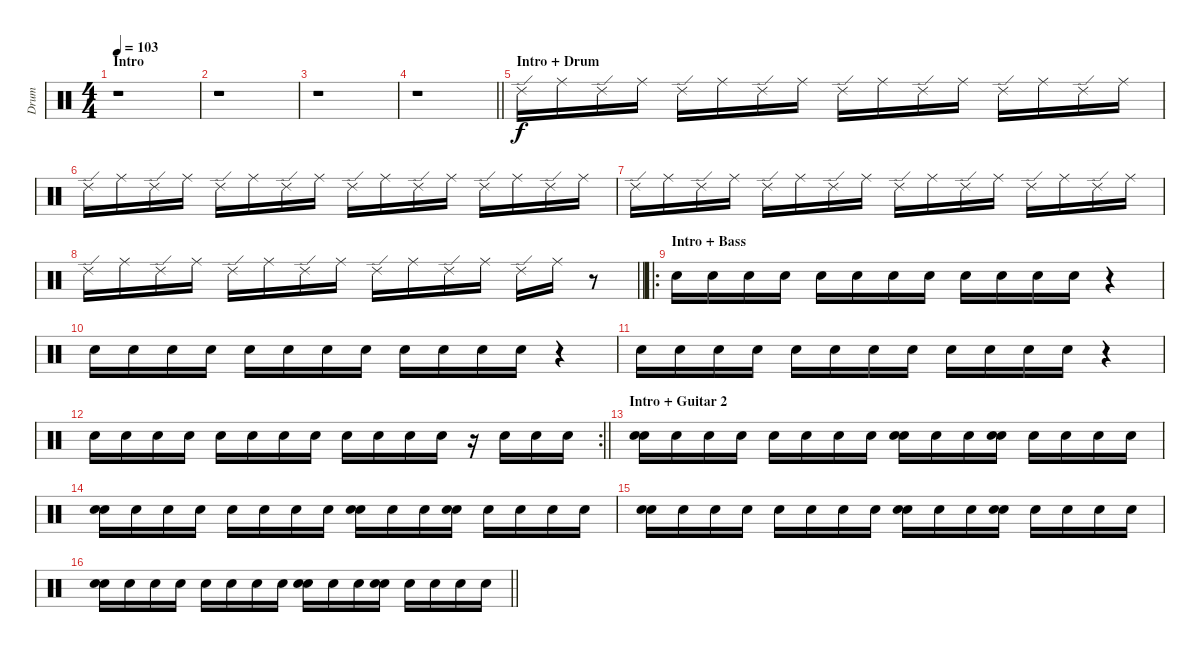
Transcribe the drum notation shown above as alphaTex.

\track ("Drum" "Drum") {instrument percussion}
\staff {score}
\articulation defaults
\ts (4 4)
\section ("" "Intro")
\tempo 103
\clef neutral
\ks c
r.1{dy f} |
r.1 |
r.1 |
\barLineRight lightlight
r.1 |
\section ("" "Intro + Drum")
"Ride (edge) 2".16 "Ride (middle)".16 "Ride (edge) 2".16 "Ride (middle)".16 "Ride (edge) 2".16 "Ride (middle)".16 "Ride (edge) 2".16 "Ride (middle)".16 "Ride (edge) 2".16 "Ride (middle)".16 "Ride (edge) 2".16 "Ride (middle)".16 "Ride (edge) 2".16 "Ride (middle)".16 "Ride (edge) 2".16 "Ride (middle)".16 |
"Ride (edge) 2".16 "Ride (middle)".16 "Ride (edge) 2".16 "Ride (middle)".16 "Ride (edge) 2".16 "Ride (middle)".16 "Ride (edge) 2".16 "Ride (middle)".16 "Ride (edge) 2".16 "Ride (middle)".16 "Ride (edge) 2".16 "Ride (middle)".16 "Ride (edge) 2".16 "Ride (middle)".16 "Ride (edge) 2".16 "Ride (middle)".16 |
"Ride (edge) 2".16 "Ride (middle)".16 "Ride (edge) 2".16 "Ride (middle)".16 "Ride (edge) 2".16 "Ride (middle)".16 "Ride (edge) 2".16 "Ride (middle)".16 "Ride (edge) 2".16 "Ride (middle)".16 "Ride (edge) 2".16 "Ride (middle)".16 "Ride (edge) 2".16 "Ride (middle)".16 "Ride (edge) 2".16 "Ride (middle)".16 |
\barLineRight lightlight "Ride (edge) 2".16 "Ride (middle)".16 "Ride (edge) 2".16 "Ride (middle)".16 "Ride (edge) 2".16 "Ride (middle)".16 "Ride (edge) 2".16 "Ride (middle)".16 "Ride (edge) 2".16 "Ride (middle)".16 "Ride (edge) 2".16 "Ride (middle)".16 "Ride (edge) 2".16 "Ride (middle)".16
r.8 |
\ro
\section ("" "Intro + Bass")
"Snare (hit) 2".16 "Snare (hit) 2".16 "Snare (hit) 2".16 "Snare (hit) 2".16 "Snare (hit) 2".16 "Snare (hit) 2".16 "Snare (hit) 2".16 "Snare (hit) 2".16 "Snare (hit) 2".16 "Snare (hit) 2".16 "Snare (hit) 2".16 "Snare (hit) 2".16 r.4 |
"Snare (hit) 2".16 "Snare (hit) 2".16 "Snare (hit) 2".16 "Snare (hit) 2".16 "Snare (hit) 2".16 "Snare (hit) 2".16 "Snare (hit) 2".16 "Snare (hit) 2".16 "Snare (hit) 2".16 "Snare (hit) 2".16 "Snare (hit) 2".16 "Snare (hit) 2".16 r.4 |
"Snare (hit) 2".16 "Snare (hit) 2".16 "Snare (hit) 2".16 "Snare (hit) 2".16 "Snare (hit) 2".16 "Snare (hit) 2".16 "Snare (hit) 2".16 "Snare (hit) 2".16 "Snare (hit) 2".16 "Snare (hit) 2".16 "Snare (hit) 2".16 "Snare (hit) 2".16 r.4 |
\rc 2
\barLineRight lightlight "Snare (hit) 2".16 "Snare (hit) 2".16 "Snare (hit) 2".16 "Snare (hit) 2".16 "Snare (hit) 2".16 "Snare (hit) 2".16 "Snare (hit) 2".16 "Snare (hit) 2".16 "Snare (hit) 2".16 "Snare (hit) 2".16 "Snare (hit) 2".16 "Snare (hit) 2".16
r.16 "Snare (hit) 2".16 "Snare (hit) 2".16 "Snare (hit) 2".16 |
\section ("" "Intro + Guitar 2")
("Electric Snare (hit)" "Snare (hit) 2").16 "Snare (hit) 2".16 "Snare (hit) 2".16 "Snare (hit) 2".16 "Snare (hit) 2".16 "Snare (hit) 2".16 "Snare (hit) 2".16 "Snare (hit) 2".16 ("Electric Snare (hit)" "Snare (hit) 2").16 "Snare (hit) 2".16 "Snare (hit) 2".16 ("Electric Snare (hit)" "Snare (hit) 2").16 "Snare (hit) 2".16 "Snare (hit) 2".16 "Snare (hit) 2".16 "Snare (hit) 2".16 |
("Electric Snare (hit)" "Snare (hit) 2").16 "Snare (hit) 2".16 "Snare (hit) 2".16 "Snare (hit) 2".16 "Snare (hit) 2".16 "Snare (hit) 2".16 "Snare (hit) 2".16 "Snare (hit) 2".16 ("Electric Snare (hit)" "Snare (hit) 2").16 "Snare (hit) 2".16 "Snare (hit) 2".16 ("Electric Snare (hit)" "Snare (hit) 2").16 "Snare (hit) 2".16 "Snare (hit) 2".16 "Snare (hit) 2".16 "Snare (hit) 2".16 |
("Electric Snare (hit)" "Snare (hit) 2").16 "Snare (hit) 2".16 "Snare (hit) 2".16 "Snare (hit) 2".16 "Snare (hit) 2".16 "Snare (hit) 2".16 "Snare (hit) 2".16 "Snare (hit) 2".16 ("Electric Snare (hit)" "Snare (hit) 2").16 "Snare (hit) 2".16 "Snare (hit) 2".16 ("Electric Snare (hit)" "Snare (hit) 2").16 "Snare (hit) 2".16 "Snare (hit) 2".16 "Snare (hit) 2".16 "Snare (hit) 2".16 |
\barLineRight lightlight
("Electric Snare (hit)" "Snare (hit) 2").16 "Snare (hit) 2".16 "Snare (hit) 2".16 "Snare (hit) 2".16 "Snare (hit) 2".16 "Snare (hit) 2".16 "Snare (hit) 2".16 "Snare (hit) 2".16 ("Electric Snare (hit)" "Snare (hit) 2").16 "Snare (hit) 2".16 "Snare (hit) 2".16 ("Electric Snare (hit)" "Snare (hit) 2").16 "Snare (hit) 2".16 "Snare (hit) 2".16 "Snare (hit) 2".16 "Snare (hit) 2".16
